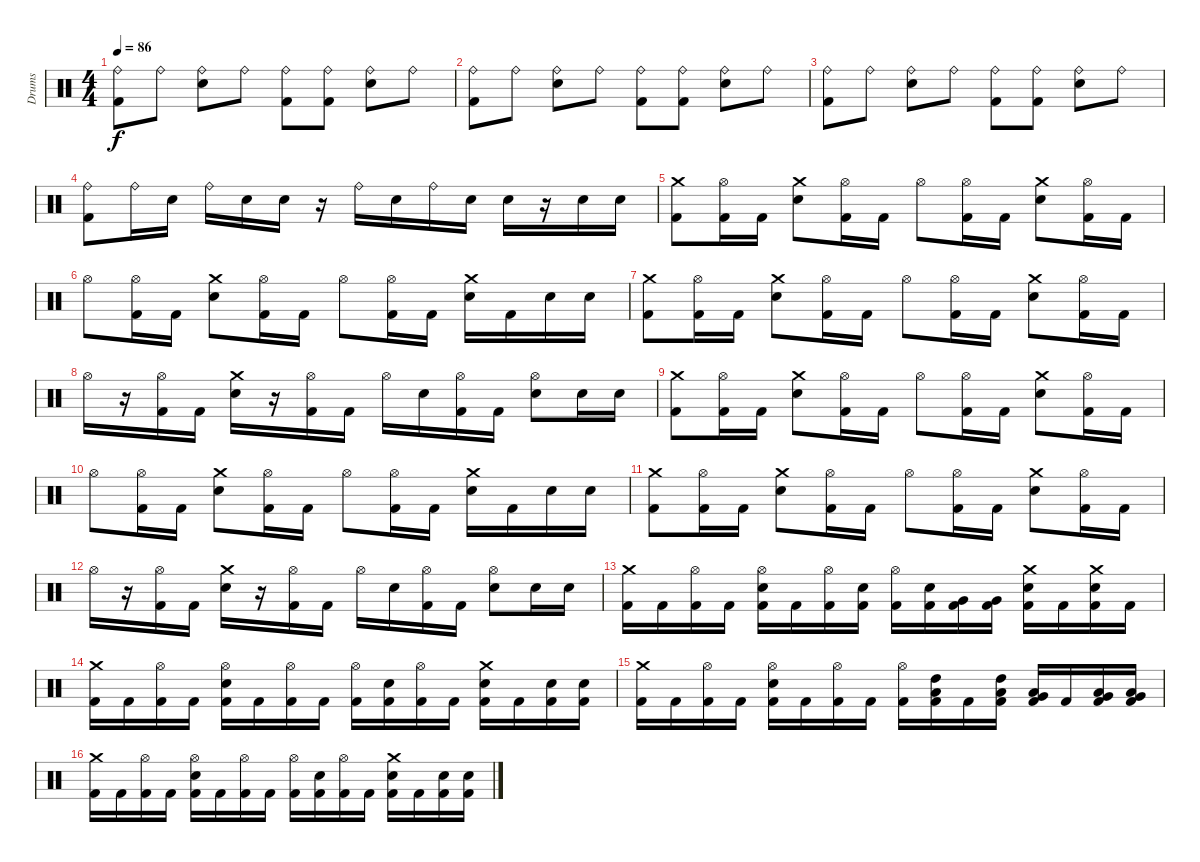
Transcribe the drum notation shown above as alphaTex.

\track ("Drums" "Drums") {instrument percussion}
\staff {score}
\articulation defaults
\ts (4 4)
\tempo 86
\clef neutral
\ks c
("Kick (hit) 2" "Ride (bell)").8{dy f} "Ride (bell)".8 ("Snare (hit) 2" "Ride (bell)").8 "Ride (bell)".8 ("Kick (hit) 2" "Ride (bell)").8 ("Kick (hit) 2" "Ride (bell)").8 ("Snare (hit) 2" "Ride (bell)").8 "Ride (bell)".8 |
("Kick (hit) 2" "Ride (bell)").8 "Ride (bell)".8 ("Snare (hit) 2" "Ride (bell)").8 "Ride (bell)".8 ("Kick (hit) 2" "Ride (bell)").8 ("Kick (hit) 2" "Ride (bell)").8 ("Snare (hit) 2" "Ride (bell)").8 "Ride (bell)".8 |
("Kick (hit) 2" "Ride (bell)").8 "Ride (bell)".8 ("Snare (hit) 2" "Ride (bell)").8 "Ride (bell)".8 ("Kick (hit) 2" "Ride (bell)").8 ("Kick (hit) 2" "Ride (bell)").8 ("Snare (hit) 2" "Ride (bell)").8 "Ride (bell)".8 |
("Kick (hit) 2" "Ride (bell)").8 "Ride (bell)".16 "Snare (hit) 2".16 "Ride (bell)".16 "Snare (hit) 2".16 "Snare (hit) 2".16 r.16 "Ride (bell)".16 "Snare (hit) 2".16 "Ride (bell)".16 "Snare (hit) 2".16 "Snare (hit) 2".16 r.16 "Snare (hit) 2".16 "Snare (hit) 2".16 |
("Kick (hit) 2" "Crash medium (hit)").8 ("Kick (hit) 2" "Hi-Hat (open)").16 "Kick (hit) 2".16 ("Snare (hit) 2" "Crash medium (hit)").8 ("Kick (hit) 2" "Hi-Hat (open)").16 "Kick (hit) 2".16 "Hi-Hat (open)".8 ("Kick (hit) 2" "Hi-Hat (open)").16 "Kick (hit) 2".16 ("Snare (hit) 2" "Crash medium (hit)").8 ("Kick (hit) 2" "Hi-Hat (open)").16 "Kick (hit) 2".16 |
"Hi-Hat (open)".8 ("Kick (hit) 2" "Hi-Hat (open)").16 "Kick (hit) 2".16 ("Snare (hit) 2" "Crash medium (hit)").8 ("Kick (hit) 2" "Hi-Hat (open)").16 "Kick (hit) 2".16 "Hi-Hat (open)".8 ("Kick (hit) 2" "Hi-Hat (open)").16 "Kick (hit) 2".16 ("Snare (hit) 2" "Crash medium (hit)").16 "Kick (hit) 2".16 "Snare (hit) 2".16 "Snare (hit) 2".16 |
("Kick (hit) 2" "Crash medium (hit)").8 ("Kick (hit) 2" "Hi-Hat (open)").16 "Kick (hit) 2".16 ("Snare (hit) 2" "Crash medium (hit)").8 ("Kick (hit) 2" "Hi-Hat (open)").16 "Kick (hit) 2".16 "Hi-Hat (open)".8 ("Kick (hit) 2" "Hi-Hat (open)").16 "Kick (hit) 2".16 ("Snare (hit) 2" "Crash medium (hit)").8 ("Kick (hit) 2" "Hi-Hat (open)").16 "Kick (hit) 2".16 |
"Hi-Hat (open)".16 r.16 ("Kick (hit) 2" "Hi-Hat (open)").16 "Kick (hit) 2".16 ("Snare (hit) 2" "Crash medium (hit)").16 r.16 ("Kick (hit) 2" "Hi-Hat (open)").16 "Kick (hit) 2".16 "Hi-Hat (open)".16 "Snare (hit) 2".16 ("Kick (hit) 2" "Hi-Hat (open)").16 "Kick (hit) 2".16 ("Snare (hit) 2" "Hi-Hat (open)").8 "Snare (hit) 2".16 "Snare (hit) 2".16 |
("Kick (hit) 2" "Crash medium (hit)").8 ("Kick (hit) 2" "Hi-Hat (open)").16 "Kick (hit) 2".16 ("Snare (hit) 2" "Crash medium (hit)").8 ("Kick (hit) 2" "Hi-Hat (open)").16 "Kick (hit) 2".16 "Hi-Hat (open)".8 ("Kick (hit) 2" "Hi-Hat (open)").16 "Kick (hit) 2".16 ("Snare (hit) 2" "Crash medium (hit)").8 ("Kick (hit) 2" "Hi-Hat (open)").16 "Kick (hit) 2".16 |
"Hi-Hat (open)".8 ("Kick (hit) 2" "Hi-Hat (open)").16 "Kick (hit) 2".16 ("Snare (hit) 2" "Crash medium (hit)").8 ("Kick (hit) 2" "Hi-Hat (open)").16 "Kick (hit) 2".16 "Hi-Hat (open)".8 ("Kick (hit) 2" "Hi-Hat (open)").16 "Kick (hit) 2".16 ("Snare (hit) 2" "Crash medium (hit)").16 "Kick (hit) 2".16 "Snare (hit) 2".16 "Snare (hit) 2".16 |
("Kick (hit) 2" "Crash medium (hit)").8 ("Kick (hit) 2" "Hi-Hat (open)").16 "Kick (hit) 2".16 ("Snare (hit) 2" "Crash medium (hit)").8 ("Kick (hit) 2" "Hi-Hat (open)").16 "Kick (hit) 2".16 "Hi-Hat (open)".8 ("Kick (hit) 2" "Hi-Hat (open)").16 "Kick (hit) 2".16 ("Snare (hit) 2" "Crash medium (hit)").8 ("Kick (hit) 2" "Hi-Hat (open)").16 "Kick (hit) 2".16 |
"Hi-Hat (open)".16 r.16 ("Kick (hit) 2" "Hi-Hat (open)").16 "Kick (hit) 2".16 ("Snare (hit) 2" "Crash medium (hit)").16 r.16 ("Kick (hit) 2" "Hi-Hat (open)").16 "Kick (hit) 2".16 "Hi-Hat (open)".16 "Snare (hit) 2".16 ("Kick (hit) 2" "Hi-Hat (open)").16 "Kick (hit) 2".16 ("Snare (hit) 2" "Hi-Hat (open)").8 "Snare (hit) 2".16 "Snare (hit) 2".16 |
("Crash medium (hit)" "Kick (hit) 2").16 "Kick (hit) 2".16 ("Hi-Hat (open)" "Kick (hit) 2").16 "Kick (hit) 2".16 ("Hi-Hat (open)" "Snare (hit) 2" "Kick (hit) 2").16 "Kick (hit) 2".16 ("Hi-Hat (open)" "Kick (hit) 2").16 ("Snare (hit) 2" "Kick (hit) 2").16 ("Hi-Hat (open)" "Kick (hit) 2").16 ("Snare (hit) 2" "Kick (hit) 2").16 ("Very Low Tom (hit)" "Kick (hit) 2").16 ("Very Low Tom (hit)" "Kick (hit) 2").16 ("Snare (hit) 2" "Crash medium (hit)" "Kick (hit) 2").16 "Kick (hit) 2".16 ("Snare (hit) 2" "Crash medium (hit)" "Kick (hit) 2").16 "Kick (hit) 2".16 |
("Crash medium (hit)" "Kick (hit) 2").16 "Kick (hit) 2".16 ("Hi-Hat (open)" "Kick (hit) 2").16 "Kick (hit) 2".16 ("Snare (hit) 2" "Hi-Hat (open)" "Kick (hit) 2").16 "Kick (hit) 2".16 ("Hi-Hat (open)" "Kick (hit) 2").16 "Kick (hit) 2".16 ("Hi-Hat (open)" "Kick (hit) 2").16 ("Snare (hit) 2" "Kick (hit) 2").16 ("Hi-Hat (open)" "Kick (hit) 2").16 "Kick (hit) 2".16 ("Snare (hit) 2" "Crash medium (hit)" "Kick (hit) 2").16 "Kick (hit) 2".16 ("Snare (hit) 2" "Kick (hit) 2").16 ("Snare (hit) 2" "Kick (hit) 2").16 |
("Crash medium (hit)" "Kick (hit) 2").16 "Kick (hit) 2".16 ("Hi-Hat (open)" "Kick (hit) 2").16 "Kick (hit) 2".16 ("Snare (hit) 2" "Hi-Hat (open)" "Kick (hit) 2").16 "Kick (hit) 2".16 ("Hi-Hat (open)" "Kick (hit) 2").16 "Kick (hit) 2".16 ("Hi-Hat (open)" "Kick (hit) 2").16 ("Low Tom (hit)" "High Tom (hit)" "Kick (hit) 2").16 "Kick (hit) 2".16 ("Low Tom (hit)" "High Tom (hit)" "Kick (hit) 2").16 ("Low Tom (hit)" "Very Low Tom (hit)" "Kick (hit) 2").16 "Kick (hit) 2".16 ("Low Tom (hit)" "Very Low Tom (hit)" "Kick (hit) 2").16 ("Low Tom (hit)" "Very Low Tom (hit)" "Kick (hit) 2").16 |
("Crash medium (hit)" "Kick (hit) 2").16 "Kick (hit) 2".16 ("Hi-Hat (open)" "Kick (hit) 2").16 "Kick (hit) 2".16 ("Snare (hit) 2" "Hi-Hat (open)" "Kick (hit) 2").16 "Kick (hit) 2".16 ("Hi-Hat (open)" "Kick (hit) 2").16 "Kick (hit) 2".16 ("Hi-Hat (open)" "Kick (hit) 2").16 ("Snare (hit) 2" "Kick (hit) 2").16 ("Hi-Hat (open)" "Kick (hit) 2").16 "Kick (hit) 2".16 ("Snare (hit) 2" "Crash medium (hit)" "Kick (hit) 2").16 "Kick (hit) 2".16 ("Snare (hit) 2" "Kick (hit) 2").16 ("Snare (hit) 2" "Kick (hit) 2").16
